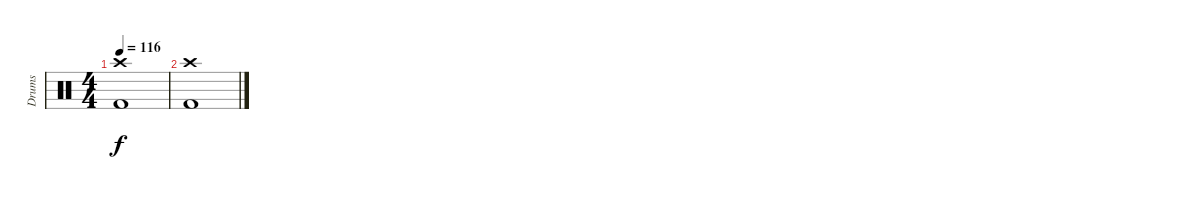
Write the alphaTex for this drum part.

\track ("Drums" "Drums") {instrument percussion}
\staff {score}
\articulation defaults
\ts (4 4)
\tempo 116
\clef neutral
\ks c
("Crash high (hit)" "Kick (hit) 2").1{dy f} |
("Crash high (hit)" "Kick (hit) 2").1
